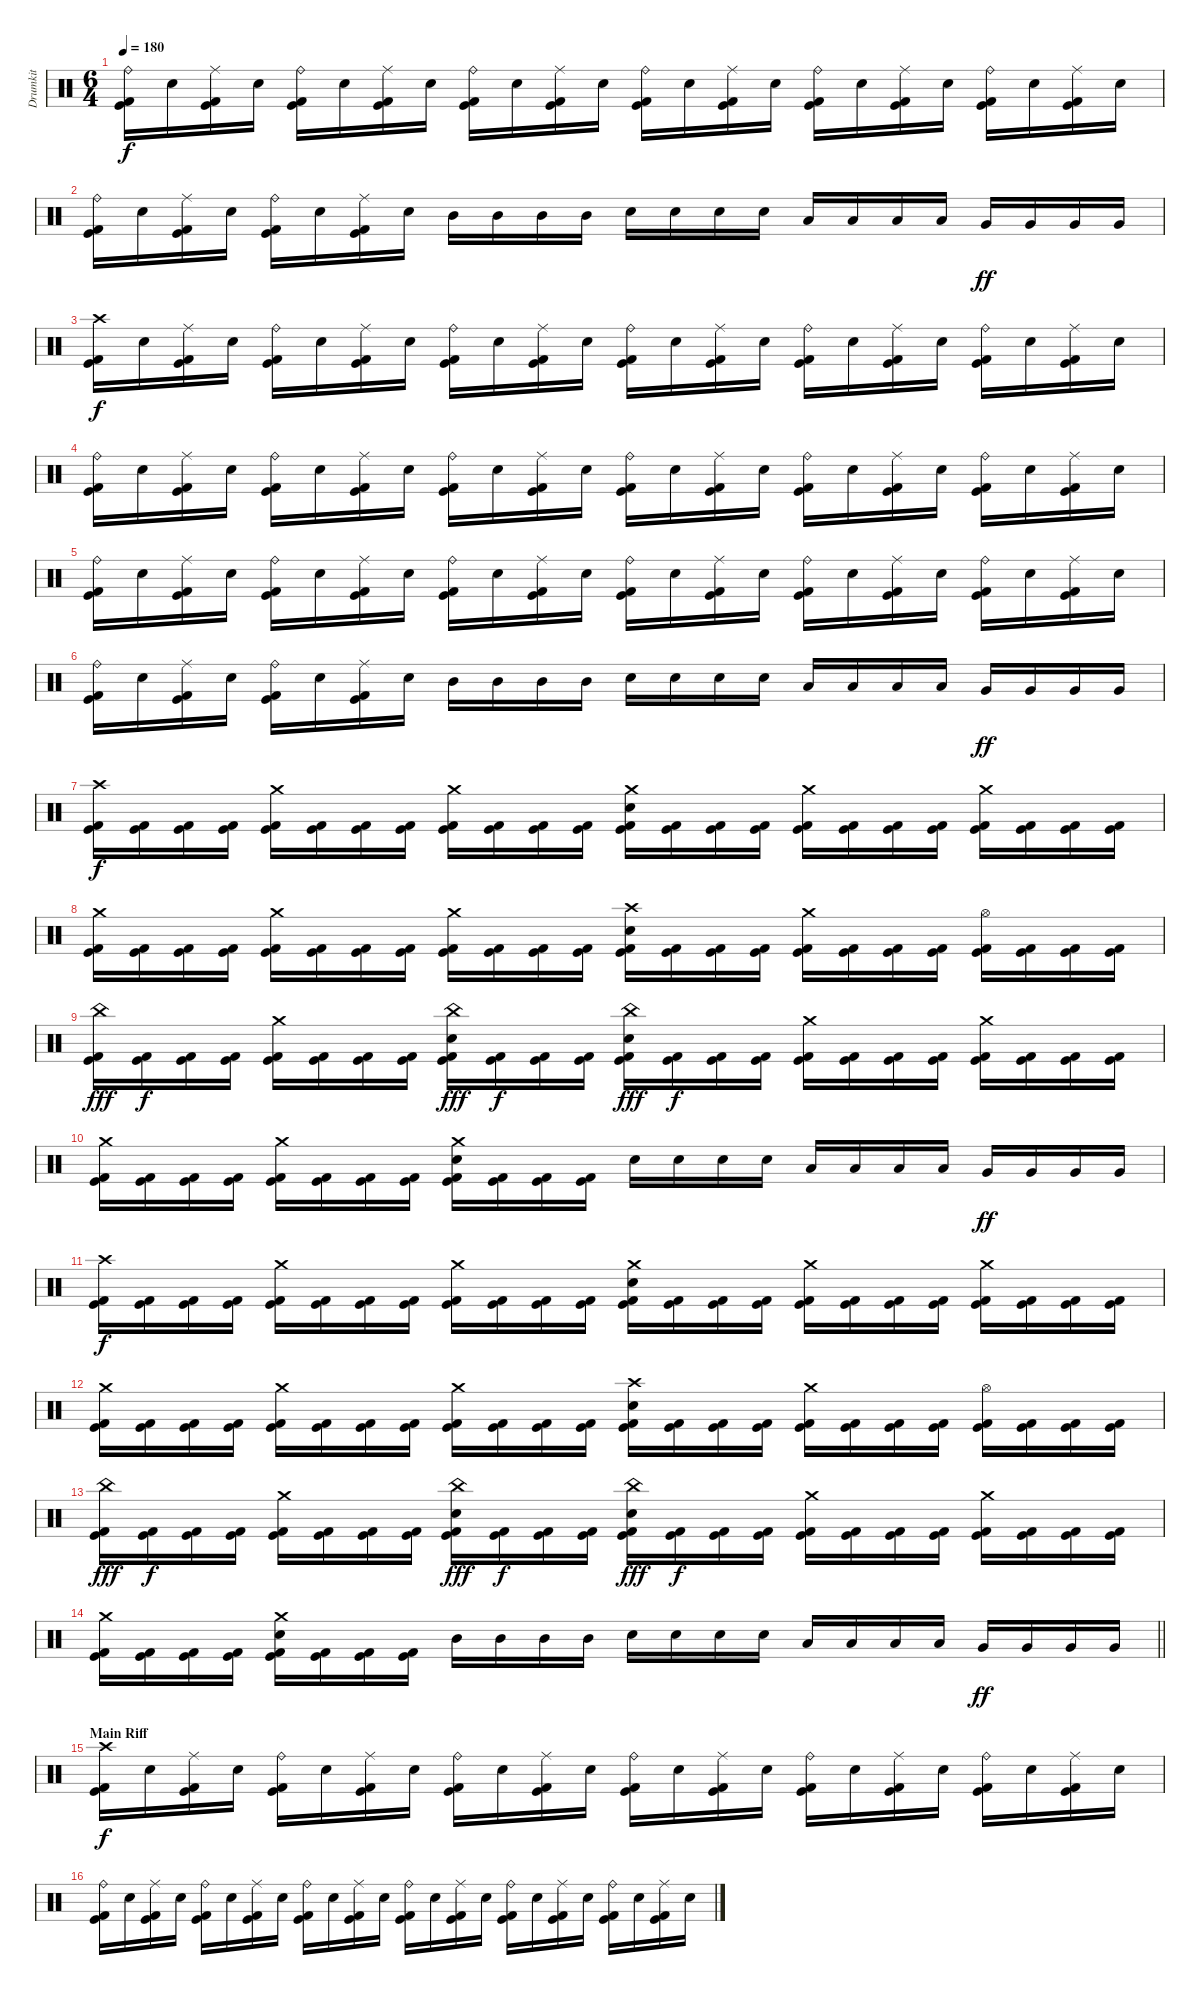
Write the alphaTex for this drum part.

\track ("Drumkit" "Drumkit") {instrument percussion}
\staff {score}
\articulation defaults
\ts (6 4)
\tempo 180
\clef neutral
\ks c
("Ride (bell)" "Kick (hit)" "Kick (hit) 2").16{dy f} "Electric Snare (hit)".16 ("Ride (middle)" "Kick (hit)" "Kick (hit) 2").16 "Electric Snare (hit)".16 ("Ride (bell)" "Kick (hit)" "Kick (hit) 2").16 "Electric Snare (hit)".16 ("Ride (middle)" "Kick (hit)" "Kick (hit) 2").16 "Electric Snare (hit)".16 ("Ride (bell)" "Kick (hit)" "Kick (hit) 2").16 "Electric Snare (hit)".16 ("Ride (middle)" "Kick (hit)" "Kick (hit) 2").16 "Electric Snare (hit)".16 ("Ride (bell)" "Kick (hit)" "Kick (hit) 2").16 "Electric Snare (hit)".16 ("Ride (middle)" "Kick (hit)" "Kick (hit) 2").16 "Electric Snare (hit)".16 ("Ride (bell)" "Kick (hit)" "Kick (hit) 2").16 "Electric Snare (hit)".16 ("Ride (middle)" "Kick (hit)" "Kick (hit) 2").16 "Electric Snare (hit)".16 ("Ride (bell)" "Kick (hit)" "Kick (hit) 2").16 "Electric Snare (hit)".16 ("Ride (middle)" "Kick (hit)" "Kick (hit) 2").16 "Electric Snare (hit)".16 |
("Ride (bell)" "Kick (hit)" "Kick (hit) 2").16 "Electric Snare (hit)".16 ("Ride (middle)" "Kick (hit)" "Kick (hit) 2").16 "Electric Snare (hit)".16 ("Ride (bell)" "Kick (hit)" "Kick (hit) 2").16 "Electric Snare (hit)".16 ("Ride (middle)" "Kick (hit)" "Kick (hit) 2").16 "Electric Snare (hit)".16 "Mid Tom (hit)".16 "Mid Tom (hit)".16 "Mid Tom (hit)".16 "Mid Tom (hit)".16 "Electric Snare (hit)".16 "Electric Snare (hit)".16 "Electric Snare (hit)".16 "Electric Snare (hit)".16 "Low Tom (hit)".16 "Low Tom (hit)".16 "Low Tom (hit)".16 "Low Tom (hit)".16 "Very Low Tom (hit)".16{dy ff} "Very Low Tom (hit)".16 "Very Low Tom (hit)".16 "Very Low Tom (hit)".16 |
("Crash high (hit)" "Kick (hit)" "Kick (hit) 2").16{dy f} "Electric Snare (hit)".16 ("Ride (middle)" "Kick (hit)" "Kick (hit) 2").16 "Electric Snare (hit)".16 ("Ride (bell)" "Kick (hit)" "Kick (hit) 2").16 "Electric Snare (hit)".16 ("Ride (middle)" "Kick (hit)" "Kick (hit) 2").16 "Electric Snare (hit)".16 ("Ride (bell)" "Kick (hit)" "Kick (hit) 2").16 "Electric Snare (hit)".16 ("Ride (middle)" "Kick (hit)" "Kick (hit) 2").16 "Electric Snare (hit)".16 ("Ride (bell)" "Kick (hit)" "Kick (hit) 2").16 "Electric Snare (hit)".16 ("Ride (middle)" "Kick (hit)" "Kick (hit) 2").16 "Electric Snare (hit)".16 ("Ride (bell)" "Kick (hit)" "Kick (hit) 2").16 "Electric Snare (hit)".16 ("Ride (middle)" "Kick (hit)" "Kick (hit) 2").16 "Electric Snare (hit)".16 ("Ride (bell)" "Kick (hit)" "Kick (hit) 2").16 "Electric Snare (hit)".16 ("Ride (middle)" "Kick (hit)" "Kick (hit) 2").16 "Electric Snare (hit)".16 |
("Ride (bell)" "Kick (hit)" "Kick (hit) 2").16 "Electric Snare (hit)".16 ("Ride (middle)" "Kick (hit)" "Kick (hit) 2").16 "Electric Snare (hit)".16 ("Ride (bell)" "Kick (hit)" "Kick (hit) 2").16 "Electric Snare (hit)".16 ("Ride (middle)" "Kick (hit)" "Kick (hit) 2").16 "Electric Snare (hit)".16 ("Ride (bell)" "Kick (hit)" "Kick (hit) 2").16 "Electric Snare (hit)".16 ("Ride (middle)" "Kick (hit)" "Kick (hit) 2").16 "Electric Snare (hit)".16 ("Ride (bell)" "Kick (hit)" "Kick (hit) 2").16 "Electric Snare (hit)".16 ("Ride (middle)" "Kick (hit)" "Kick (hit) 2").16 "Electric Snare (hit)".16 ("Ride (bell)" "Kick (hit)" "Kick (hit) 2").16 "Electric Snare (hit)".16 ("Ride (middle)" "Kick (hit)" "Kick (hit) 2").16 "Electric Snare (hit)".16 ("Ride (bell)" "Kick (hit)" "Kick (hit) 2").16 "Electric Snare (hit)".16 ("Ride (middle)" "Kick (hit)" "Kick (hit) 2").16 "Electric Snare (hit)".16 |
("Ride (bell)" "Kick (hit)" "Kick (hit) 2").16 "Electric Snare (hit)".16 ("Ride (middle)" "Kick (hit)" "Kick (hit) 2").16 "Electric Snare (hit)".16 ("Ride (bell)" "Kick (hit)" "Kick (hit) 2").16 "Electric Snare (hit)".16 ("Ride (middle)" "Kick (hit)" "Kick (hit) 2").16 "Electric Snare (hit)".16 ("Ride (bell)" "Kick (hit)" "Kick (hit) 2").16 "Electric Snare (hit)".16 ("Ride (middle)" "Kick (hit)" "Kick (hit) 2").16 "Electric Snare (hit)".16 ("Ride (bell)" "Kick (hit)" "Kick (hit) 2").16 "Electric Snare (hit)".16 ("Ride (middle)" "Kick (hit)" "Kick (hit) 2").16 "Electric Snare (hit)".16 ("Ride (bell)" "Kick (hit)" "Kick (hit) 2").16 "Electric Snare (hit)".16 ("Ride (middle)" "Kick (hit)" "Kick (hit) 2").16 "Electric Snare (hit)".16 ("Ride (bell)" "Kick (hit)" "Kick (hit) 2").16 "Electric Snare (hit)".16 ("Ride (middle)" "Kick (hit)" "Kick (hit) 2").16 "Electric Snare (hit)".16 |
("Ride (bell)" "Kick (hit)" "Kick (hit) 2").16 "Electric Snare (hit)".16 ("Ride (middle)" "Kick (hit)" "Kick (hit) 2").16 "Electric Snare (hit)".16 ("Ride (bell)" "Kick (hit)" "Kick (hit) 2").16 "Electric Snare (hit)".16 ("Ride (middle)" "Kick (hit)" "Kick (hit) 2").16 "Electric Snare (hit)".16 "Mid Tom (hit)".16 "Mid Tom (hit)".16 "Mid Tom (hit)".16 "Mid Tom (hit)".16 "Electric Snare (hit)".16 "Electric Snare (hit)".16 "Electric Snare (hit)".16 "Electric Snare (hit)".16 "Low Tom (hit)".16 "Low Tom (hit)".16 "Low Tom (hit)".16 "Low Tom (hit)".16 "Very Low Tom (hit)".16{dy ff} "Very Low Tom (hit)".16 "Very Low Tom (hit)".16 "Very Low Tom (hit)".16 |
("Crash high (hit)" "Kick (hit)" "Kick (hit) 2").16{dy f} ("Kick (hit)" "Kick (hit) 2").16 ("Kick (hit)" "Kick (hit) 2").16 ("Kick (hit)" "Kick (hit) 2").16 ("Crash medium (hit)" "Kick (hit)" "Kick (hit) 2").16 ("Kick (hit)" "Kick (hit) 2").16 ("Kick (hit)" "Kick (hit) 2").16 ("Kick (hit)" "Kick (hit) 2").16 ("Crash medium (hit)" "Kick (hit)" "Kick (hit) 2").16 ("Kick (hit)" "Kick (hit) 2").16 ("Kick (hit)" "Kick (hit) 2").16 ("Kick (hit)" "Kick (hit) 2").16 ("Crash medium (hit)" "Electric Snare (hit)" "Kick (hit)" "Kick (hit) 2").16 ("Kick (hit)" "Kick (hit) 2").16 ("Kick (hit)" "Kick (hit) 2").16 ("Kick (hit)" "Kick (hit) 2").16 ("Crash medium (hit)" "Kick (hit)" "Kick (hit) 2").16 ("Kick (hit)" "Kick (hit) 2").16 ("Kick (hit)" "Kick (hit) 2").16 ("Kick (hit)" "Kick (hit) 2").16 ("Crash medium (hit)" "Kick (hit)" "Kick (hit) 2").16 ("Kick (hit)" "Kick (hit) 2").16 ("Kick (hit)" "Kick (hit) 2").16 ("Kick (hit)" "Kick (hit) 2").16 |
("Crash medium (hit)" "Kick (hit)" "Kick (hit) 2").16 ("Kick (hit)" "Kick (hit) 2").16 ("Kick (hit)" "Kick (hit) 2").16 ("Kick (hit)" "Kick (hit) 2").16 ("Crash medium (hit)" "Kick (hit)" "Kick (hit) 2").16 ("Kick (hit)" "Kick (hit) 2").16 ("Kick (hit)" "Kick (hit) 2").16 ("Kick (hit)" "Kick (hit) 2").16 ("Crash medium (hit)" "Kick (hit)" "Kick (hit) 2").16 ("Kick (hit)" "Kick (hit) 2").16 ("Kick (hit)" "Kick (hit) 2").16 ("Kick (hit)" "Kick (hit) 2").16 ("Crash high (hit)" "Electric Snare (hit)" "Kick (hit)" "Kick (hit) 2").16 ("Kick (hit)" "Kick (hit) 2").16 ("Kick (hit)" "Kick (hit) 2").16 ("Kick (hit)" "Kick (hit) 2").16 ("Crash medium (hit)" "Kick (hit)" "Kick (hit) 2").16 ("Kick (hit)" "Kick (hit) 2").16 ("Kick (hit)" "Kick (hit) 2").16 ("Kick (hit)" "Kick (hit) 2").16 ("Hi-Hat (open)" "Kick (hit)" "Kick (hit) 2").16 ("Kick (hit)" "Kick (hit) 2").16 ("Kick (hit)" "Kick (hit) 2").16 ("Kick (hit)" "Kick (hit) 2").16 |
("China (hit)" "Kick (hit)" "Kick (hit) 2").16{dy fff} ("Kick (hit)" "Kick (hit) 2").16{dy f} ("Kick (hit)" "Kick (hit) 2").16 ("Kick (hit)" "Kick (hit) 2").16 ("Crash medium (hit)" "Kick (hit)" "Kick (hit) 2").16 ("Kick (hit)" "Kick (hit) 2").16 ("Kick (hit)" "Kick (hit) 2").16 ("Kick (hit)" "Kick (hit) 2").16 ("China (hit)" "Electric Snare (hit)" "Kick (hit)" "Kick (hit) 2").16{dy fff} ("Kick (hit)" "Kick (hit) 2").16{dy f} ("Kick (hit)" "Kick (hit) 2").16 ("Kick (hit)" "Kick (hit) 2").16 ("China (hit)" "Electric Snare (hit)" "Kick (hit)" "Kick (hit) 2").16{dy fff} ("Kick (hit)" "Kick (hit) 2").16{dy f} ("Kick (hit)" "Kick (hit) 2").16 ("Kick (hit)" "Kick (hit) 2").16 ("Crash medium (hit)" "Kick (hit)" "Kick (hit) 2").16 ("Kick (hit)" "Kick (hit) 2").16 ("Kick (hit)" "Kick (hit) 2").16 ("Kick (hit)" "Kick (hit) 2").16 ("Crash medium (hit)" "Kick (hit)" "Kick (hit) 2").16 ("Kick (hit)" "Kick (hit) 2").16 ("Kick (hit)" "Kick (hit) 2").16 ("Kick (hit)" "Kick (hit) 2").16 |
("Crash medium (hit)" "Kick (hit)" "Kick (hit) 2").16 ("Kick (hit)" "Kick (hit) 2").16 ("Kick (hit)" "Kick (hit) 2").16 ("Kick (hit)" "Kick (hit) 2").16 ("Crash medium (hit)" "Kick (hit)" "Kick (hit) 2").16 ("Kick (hit)" "Kick (hit) 2").16 ("Kick (hit)" "Kick (hit) 2").16 ("Kick (hit)" "Kick (hit) 2").16 ("Crash medium (hit)" "Electric Snare (hit)" "Kick (hit)" "Kick (hit) 2").16 ("Kick (hit)" "Kick (hit) 2").16 ("Kick (hit)" "Kick (hit) 2").16 ("Kick (hit)" "Kick (hit) 2").16 "Electric Snare (hit)".16 "Electric Snare (hit)".16 "Electric Snare (hit)".16 "Electric Snare (hit)".16 "Low Tom (hit)".16 "Low Tom (hit)".16 "Low Tom (hit)".16 "Low Tom (hit)".16 "Very Low Tom (hit)".16{dy ff} "Very Low Tom (hit)".16 "Very Low Tom (hit)".16 "Very Low Tom (hit)".16 |
("Crash high (hit)" "Kick (hit)" "Kick (hit) 2").16{dy f} ("Kick (hit)" "Kick (hit) 2").16 ("Kick (hit)" "Kick (hit) 2").16 ("Kick (hit)" "Kick (hit) 2").16 ("Crash medium (hit)" "Kick (hit)" "Kick (hit) 2").16 ("Kick (hit)" "Kick (hit) 2").16 ("Kick (hit)" "Kick (hit) 2").16 ("Kick (hit)" "Kick (hit) 2").16 ("Crash medium (hit)" "Kick (hit)" "Kick (hit) 2").16 ("Kick (hit)" "Kick (hit) 2").16 ("Kick (hit)" "Kick (hit) 2").16 ("Kick (hit)" "Kick (hit) 2").16 ("Crash medium (hit)" "Electric Snare (hit)" "Kick (hit)" "Kick (hit) 2").16 ("Kick (hit)" "Kick (hit) 2").16 ("Kick (hit)" "Kick (hit) 2").16 ("Kick (hit)" "Kick (hit) 2").16 ("Crash medium (hit)" "Kick (hit)" "Kick (hit) 2").16 ("Kick (hit)" "Kick (hit) 2").16 ("Kick (hit)" "Kick (hit) 2").16 ("Kick (hit)" "Kick (hit) 2").16 ("Crash medium (hit)" "Kick (hit)" "Kick (hit) 2").16 ("Kick (hit)" "Kick (hit) 2").16 ("Kick (hit)" "Kick (hit) 2").16 ("Kick (hit)" "Kick (hit) 2").16 |
("Crash medium (hit)" "Kick (hit)" "Kick (hit) 2").16 ("Kick (hit)" "Kick (hit) 2").16 ("Kick (hit)" "Kick (hit) 2").16 ("Kick (hit)" "Kick (hit) 2").16 ("Crash medium (hit)" "Kick (hit)" "Kick (hit) 2").16 ("Kick (hit)" "Kick (hit) 2").16 ("Kick (hit)" "Kick (hit) 2").16 ("Kick (hit)" "Kick (hit) 2").16 ("Crash medium (hit)" "Kick (hit)" "Kick (hit) 2").16 ("Kick (hit)" "Kick (hit) 2").16 ("Kick (hit)" "Kick (hit) 2").16 ("Kick (hit)" "Kick (hit) 2").16 ("Crash high (hit)" "Electric Snare (hit)" "Kick (hit)" "Kick (hit) 2").16 ("Kick (hit)" "Kick (hit) 2").16 ("Kick (hit)" "Kick (hit) 2").16 ("Kick (hit)" "Kick (hit) 2").16 ("Crash medium (hit)" "Kick (hit)" "Kick (hit) 2").16 ("Kick (hit)" "Kick (hit) 2").16 ("Kick (hit)" "Kick (hit) 2").16 ("Kick (hit)" "Kick (hit) 2").16 ("Hi-Hat (open)" "Kick (hit)" "Kick (hit) 2").16 ("Kick (hit)" "Kick (hit) 2").16 ("Kick (hit)" "Kick (hit) 2").16 ("Kick (hit)" "Kick (hit) 2").16 |
("China (hit)" "Kick (hit)" "Kick (hit) 2").16{dy fff} ("Kick (hit)" "Kick (hit) 2").16{dy f} ("Kick (hit)" "Kick (hit) 2").16 ("Kick (hit)" "Kick (hit) 2").16 ("Crash medium (hit)" "Kick (hit)" "Kick (hit) 2").16 ("Kick (hit)" "Kick (hit) 2").16 ("Kick (hit)" "Kick (hit) 2").16 ("Kick (hit)" "Kick (hit) 2").16 ("China (hit)" "Electric Snare (hit)" "Kick (hit)" "Kick (hit) 2").16{dy fff} ("Kick (hit)" "Kick (hit) 2").16{dy f} ("Kick (hit)" "Kick (hit) 2").16 ("Kick (hit)" "Kick (hit) 2").16 ("China (hit)" "Electric Snare (hit)" "Kick (hit)" "Kick (hit) 2").16{dy fff} ("Kick (hit)" "Kick (hit) 2").16{dy f} ("Kick (hit)" "Kick (hit) 2").16 ("Kick (hit)" "Kick (hit) 2").16 ("Crash medium (hit)" "Kick (hit)" "Kick (hit) 2").16 ("Kick (hit)" "Kick (hit) 2").16 ("Kick (hit)" "Kick (hit) 2").16 ("Kick (hit)" "Kick (hit) 2").16 ("Crash medium (hit)" "Kick (hit)" "Kick (hit) 2").16 ("Kick (hit)" "Kick (hit) 2").16 ("Kick (hit)" "Kick (hit) 2").16 ("Kick (hit)" "Kick (hit) 2").16 |
\barLineRight lightlight
("Crash medium (hit)" "Kick (hit)" "Kick (hit) 2").16 ("Kick (hit)" "Kick (hit) 2").16 ("Kick (hit)" "Kick (hit) 2").16 ("Kick (hit)" "Kick (hit) 2").16 ("Crash medium (hit)" "Electric Snare (hit)" "Kick (hit)" "Kick (hit) 2").16 ("Kick (hit)" "Kick (hit) 2").16 ("Kick (hit)" "Kick (hit) 2").16 ("Kick (hit)" "Kick (hit) 2").16 "Mid Tom (hit)".16 "Mid Tom (hit)".16 "Mid Tom (hit)".16 "Mid Tom (hit)".16 "Electric Snare (hit)".16 "Electric Snare (hit)".16 "Electric Snare (hit)".16 "Electric Snare (hit)".16 "Low Tom (hit)".16 "Low Tom (hit)".16 "Low Tom (hit)".16 "Low Tom (hit)".16 "Very Low Tom (hit)".16{dy ff} "Very Low Tom (hit)".16 "Very Low Tom (hit)".16 "Very Low Tom (hit)".16 |
\section ("" "Main Riff")
("Crash high (hit)" "Kick (hit)" "Kick (hit) 2").16{dy f} "Electric Snare (hit)".16 ("Ride (middle)" "Kick (hit)" "Kick (hit) 2").16 "Electric Snare (hit)".16 ("Ride (bell)" "Kick (hit)" "Kick (hit) 2").16 "Electric Snare (hit)".16 ("Ride (middle)" "Kick (hit)" "Kick (hit) 2").16 "Electric Snare (hit)".16 ("Ride (bell)" "Kick (hit)" "Kick (hit) 2").16 "Electric Snare (hit)".16 ("Ride (middle)" "Kick (hit)" "Kick (hit) 2").16 "Electric Snare (hit)".16 ("Ride (bell)" "Kick (hit)" "Kick (hit) 2").16 "Electric Snare (hit)".16 ("Ride (middle)" "Kick (hit)" "Kick (hit) 2").16 "Electric Snare (hit)".16 ("Ride (bell)" "Kick (hit)" "Kick (hit) 2").16 "Electric Snare (hit)".16 ("Ride (middle)" "Kick (hit)" "Kick (hit) 2").16 "Electric Snare (hit)".16 ("Ride (bell)" "Kick (hit)" "Kick (hit) 2").16 "Electric Snare (hit)".16 ("Ride (middle)" "Kick (hit)" "Kick (hit) 2").16 "Electric Snare (hit)".16 |
("Ride (bell)" "Kick (hit)" "Kick (hit) 2").16 "Electric Snare (hit)".16 ("Ride (middle)" "Kick (hit)" "Kick (hit) 2").16 "Electric Snare (hit)".16 ("Ride (bell)" "Kick (hit)" "Kick (hit) 2").16 "Electric Snare (hit)".16 ("Ride (middle)" "Kick (hit)" "Kick (hit) 2").16 "Electric Snare (hit)".16 ("Ride (bell)" "Kick (hit)" "Kick (hit) 2").16 "Electric Snare (hit)".16 ("Ride (middle)" "Kick (hit)" "Kick (hit) 2").16 "Electric Snare (hit)".16 ("Ride (bell)" "Kick (hit)" "Kick (hit) 2").16 "Electric Snare (hit)".16 ("Ride (middle)" "Kick (hit)" "Kick (hit) 2").16 "Electric Snare (hit)".16 ("Ride (bell)" "Kick (hit)" "Kick (hit) 2").16 "Electric Snare (hit)".16 ("Ride (middle)" "Kick (hit)" "Kick (hit) 2").16 "Electric Snare (hit)".16 ("Ride (bell)" "Kick (hit)" "Kick (hit) 2").16 "Electric Snare (hit)".16 ("Ride (middle)" "Kick (hit)" "Kick (hit) 2").16 "Electric Snare (hit)".16
